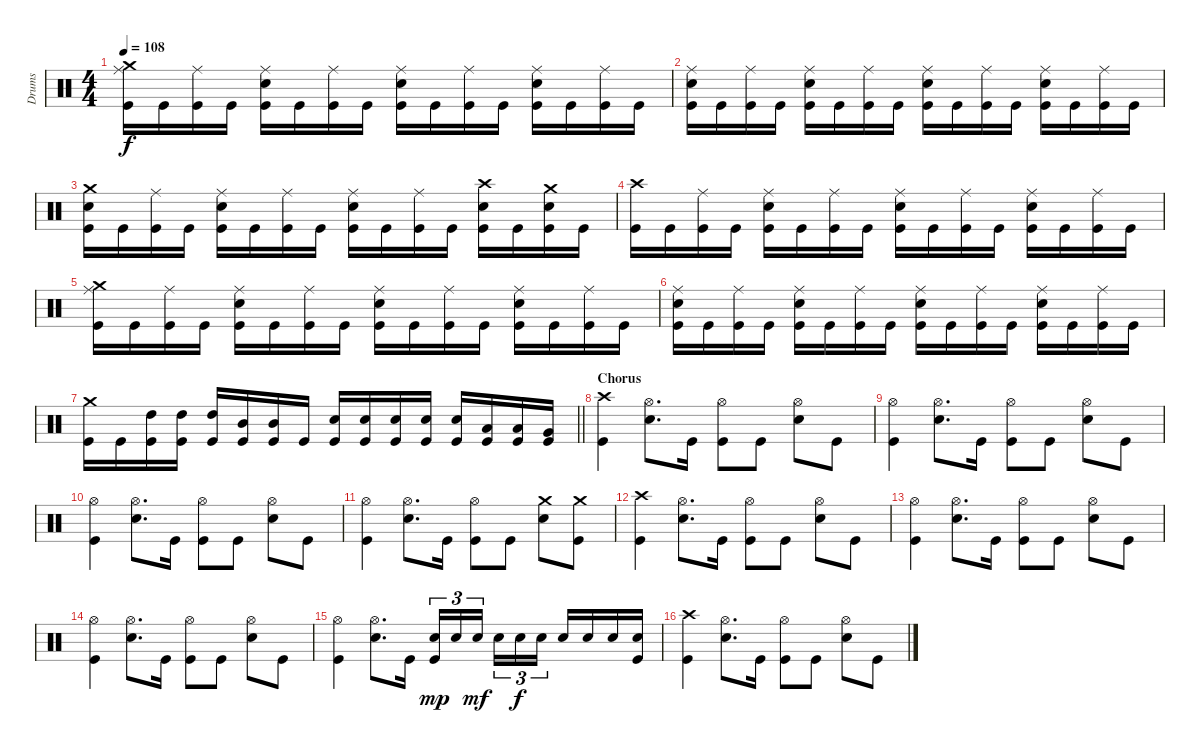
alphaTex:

\track ("Drums" "Drums") {instrument percussion}
\staff {score}
\articulation defaults
\ts (4 4)
\tempo 108
\clef neutral
\ks c
("Crash medium (hit)" "Ride (middle)" "Kick (hit)").16{dy f} "Kick (hit)".16 ("Ride (middle)" "Kick (hit)").16 "Kick (hit)".16 ("Ride (middle)" "Electric Snare (hit)" "Kick (hit)").16 "Kick (hit)".16 ("Ride (middle)" "Kick (hit)").16 "Kick (hit)".16 ("Ride (middle)" "Electric Snare (hit)" "Kick (hit)").16 "Kick (hit)".16 ("Ride (middle)" "Kick (hit)").16 "Kick (hit)".16 ("Ride (middle)" "Electric Snare (hit)" "Kick (hit)").16 "Kick (hit)".16 ("Ride (middle)" "Kick (hit)").16 "Kick (hit)".16 |
("Ride (middle)" "Electric Snare (hit)" "Kick (hit)").16 "Kick (hit)".16 ("Ride (middle)" "Kick (hit)").16 "Kick (hit)".16 ("Ride (middle)" "Electric Snare (hit)" "Kick (hit)").16 "Kick (hit)".16 ("Ride (middle)" "Kick (hit)").16 "Kick (hit)".16 ("Ride (middle)" "Electric Snare (hit)" "Kick (hit)").16 "Kick (hit)".16 ("Ride (middle)" "Kick (hit)").16 "Kick (hit)".16 ("Ride (middle)" "Electric Snare (hit)" "Kick (hit)").16 "Kick (hit)".16 ("Ride (middle)" "Kick (hit)").16 "Kick (hit)".16 |
("Crash medium (hit)" "Electric Snare (hit)" "Kick (hit)").16 "Kick (hit)".16 ("Ride (middle)" "Kick (hit)").16 "Kick (hit)".16 ("Ride (middle)" "Electric Snare (hit)" "Kick (hit)").16 "Kick (hit)".16 ("Ride (middle)" "Kick (hit)").16 "Kick (hit)".16 ("Ride (middle)" "Electric Snare (hit)" "Kick (hit)").16 "Kick (hit)".16 ("Ride (middle)" "Kick (hit)").16 "Kick (hit)".16 ("Crash high (hit)" "Electric Snare (hit)" "Kick (hit)").16 "Kick (hit)".16 ("Crash medium (hit)" "Electric Snare (hit)" "Kick (hit)").16 "Kick (hit)".16 |
("Crash high (hit)" "Kick (hit)").16 "Kick (hit)".16 ("Ride (middle)" "Kick (hit)").16 "Kick (hit)".16 ("Ride (middle)" "Electric Snare (hit)" "Kick (hit)").16 "Kick (hit)".16 ("Ride (middle)" "Kick (hit)").16 "Kick (hit)".16 ("Ride (middle)" "Electric Snare (hit)" "Kick (hit)").16 "Kick (hit)".16 ("Ride (middle)" "Kick (hit)").16 "Kick (hit)".16 ("Ride (middle)" "Electric Snare (hit)" "Kick (hit)").16 "Kick (hit)".16 ("Ride (middle)" "Kick (hit)").16 "Kick (hit)".16 |
("Crash medium (hit)" "Ride (middle)" "Kick (hit)").16 "Kick (hit)".16 ("Ride (middle)" "Kick (hit)").16 "Kick (hit)".16 ("Ride (middle)" "Electric Snare (hit)" "Kick (hit)").16 "Kick (hit)".16 ("Ride (middle)" "Kick (hit)").16 "Kick (hit)".16 ("Ride (middle)" "Electric Snare (hit)" "Kick (hit)").16 "Kick (hit)".16 ("Ride (middle)" "Kick (hit)").16 "Kick (hit)".16 ("Ride (middle)" "Electric Snare (hit)" "Kick (hit)").16 "Kick (hit)".16 ("Ride (middle)" "Kick (hit)").16 "Kick (hit)".16 |
("Ride (middle)" "Electric Snare (hit)" "Kick (hit)").16 "Kick (hit)".16 ("Ride (middle)" "Kick (hit)").16 "Kick (hit)".16 ("Ride (middle)" "Electric Snare (hit)" "Kick (hit)").16 "Kick (hit)".16 ("Ride (middle)" "Kick (hit)").16 "Kick (hit)".16 ("Ride (middle)" "Electric Snare (hit)" "Kick (hit)").16 "Kick (hit)".16 ("Ride (middle)" "Kick (hit)").16 "Kick (hit)".16 ("Ride (middle)" "Electric Snare (hit)" "Kick (hit)").16 "Kick (hit)".16 ("Ride (middle)" "Kick (hit)").16 "Kick (hit)".16 |
\barLineRight lightlight
("Crash medium (hit)" "Kick (hit)").16 "Kick (hit)".16 ("High Tom (hit)" "Kick (hit)").16 ("High Tom (hit)" "Kick (hit)").16 ("High Tom (hit)" "Kick (hit)").16 ("Mid Tom (hit)" "Kick (hit)").16 ("Mid Tom (hit)" "Kick (hit)").16 "Kick (hit)".16 ("Electric Snare (hit)" "Kick (hit)").16 ("Electric Snare (hit)" "Kick (hit)").16 ("Electric Snare (hit)" "Kick (hit)").16 ("Electric Snare (hit)" "Kick (hit)").16 ("Electric Snare (hit)" "Kick (hit)").16 ("Low Tom (hit)" "Kick (hit)").16 ("Low Tom (hit)" "Kick (hit)").16 ("Very Low Tom (hit)" "Kick (hit)").16 |
\section ("" "Chorus")
("Crash high (hit)" "Kick (hit)").4 ("Hi-Hat (open)" "Electric Snare (hit)").8{d} "Kick (hit)".16 ("Hi-Hat (open)" "Kick (hit)").8 "Kick (hit)".8 ("Hi-Hat (open)" "Electric Snare (hit)").8 "Kick (hit)".8 |
("Hi-Hat (open)" "Kick (hit)").4 ("Hi-Hat (open)" "Electric Snare (hit)").8{d} "Kick (hit)".16 ("Hi-Hat (open)" "Kick (hit)").8 "Kick (hit)".8 ("Hi-Hat (open)" "Electric Snare (hit)").8 "Kick (hit)".8 |
("Hi-Hat (open)" "Kick (hit)").4 ("Hi-Hat (open)" "Electric Snare (hit)").8{d} "Kick (hit)".16 ("Hi-Hat (open)" "Kick (hit)").8 "Kick (hit)".8 ("Hi-Hat (open)" "Electric Snare (hit)").8 "Kick (hit)".8 |
("Hi-Hat (open)" "Kick (hit)").4 ("Hi-Hat (open)" "Electric Snare (hit)").8{d} "Kick (hit)".16 ("Hi-Hat (open)" "Kick (hit)").8 "Kick (hit)".8 ("Crash medium (hit)" "Electric Snare (hit)").8 ("Crash medium (hit)" "Kick (hit)").8 |
("Crash high (hit)" "Kick (hit)").4 ("Hi-Hat (open)" "Electric Snare (hit)").8{d} "Kick (hit)".16 ("Hi-Hat (open)" "Kick (hit)").8 "Kick (hit)".8 ("Hi-Hat (open)" "Electric Snare (hit)").8 "Kick (hit)".8 |
("Hi-Hat (open)" "Kick (hit)").4 ("Hi-Hat (open)" "Electric Snare (hit)").8{d} "Kick (hit)".16 ("Hi-Hat (open)" "Kick (hit)").8 "Kick (hit)".8 ("Hi-Hat (open)" "Electric Snare (hit)").8 "Kick (hit)".8 |
("Hi-Hat (open)" "Kick (hit)").4 ("Hi-Hat (open)" "Electric Snare (hit)").8{d} "Kick (hit)".16 ("Hi-Hat (open)" "Kick (hit)").8 "Kick (hit)".8 ("Hi-Hat (open)" "Electric Snare (hit)").8 "Kick (hit)".8 |
("Hi-Hat (open)" "Kick (hit)").4 ("Hi-Hat (open)" "Electric Snare (hit)").8{d} "Kick (hit)".16 ("Electric Snare (hit)" "Kick (hit)").16{tu (3 2) dy mp} "Electric Snare (hit)".16{tu (3 2)} "Electric Snare (hit)".16{tu (3 2) dy mf beam splitsecondary} "Electric Snare (hit)".16{tu (3 2)} "Electric Snare (hit)".16{tu (3 2) dy f} "Electric Snare (hit)".16{tu (3 2)} "Electric Snare (hit)".16 "Electric Snare (hit)".16 "Electric Snare (hit)".16 ("Electric Snare (hit)" "Kick (hit)").16 |
("Crash high (hit)" "Kick (hit)").4 ("Hi-Hat (open)" "Electric Snare (hit)").8{d} "Kick (hit)".16 ("Hi-Hat (open)" "Kick (hit)").8 "Kick (hit)".8 ("Hi-Hat (open)" "Electric Snare (hit)").8 "Kick (hit)".8
